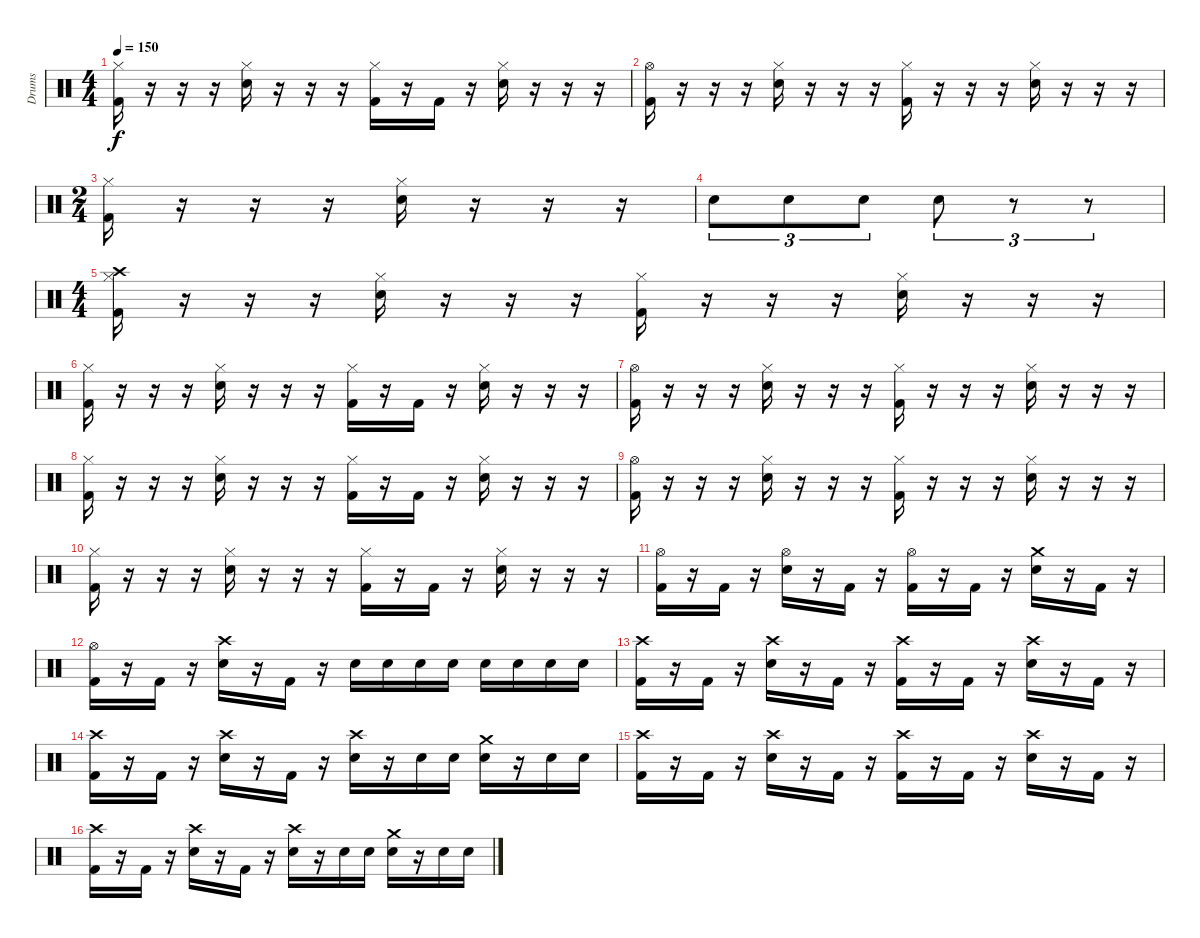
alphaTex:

\track ("Drums" "Drums") {instrument percussion}
\staff {score}
\articulation defaults
\ts (4 4)
\tempo 150
\clef neutral
\ks c
("Hi-Hat (closed)" "Kick (hit) 2").16{dy f} r.16 r.16 r.16 ("Hi-Hat (closed)" "Snare (hit) 2").16 r.16 r.16 r.16 ("Hi-Hat (closed)" "Kick (hit) 2").16 r.16 "Kick (hit) 2".16 r.16 ("Hi-Hat (closed)" "Snare (hit) 2").16 r.16 r.16 r.16 |
("Hi-Hat (open)" "Kick (hit) 2").16 r.16 r.16 r.16 ("Hi-Hat (closed)" "Snare (hit) 2").16 r.16 r.16 r.16 ("Hi-Hat (closed)" "Kick (hit) 2").16 r.16 r.16 r.16 ("Hi-Hat (closed)" "Snare (hit) 2").16 r.16 r.16 r.16 |
\ts (2 4)
("Hi-Hat (closed)" "Kick (hit) 2").16 r.16 r.16 r.16 ("Hi-Hat (closed)" "Snare (hit) 2").16 r.16 r.16 r.16 |
"Snare (hit) 2".8{tu (3 2)} "Snare (hit) 2".8{tu (3 2)} "Snare (hit) 2".8{tu (3 2)} "Snare (hit) 2".8{tu (3 2)} r.8{tu (3 2)} r.8{tu (3 2)} |
\ts (4 4)
("Crash high (hit)" "Hi-Hat (closed)" "Kick (hit) 2").16 r.16 r.16 r.16 ("Hi-Hat (closed)" "Snare (hit) 2").16 r.16 r.16 r.16 ("Hi-Hat (closed)" "Kick (hit) 2").16 r.16 r.16 r.16 ("Hi-Hat (closed)" "Snare (hit) 2").16 r.16 r.16 r.16 |
("Hi-Hat (closed)" "Kick (hit) 2").16 r.16 r.16 r.16 ("Hi-Hat (closed)" "Snare (hit) 2").16 r.16 r.16 r.16 ("Hi-Hat (closed)" "Kick (hit) 2").16 r.16 "Kick (hit) 2".16 r.16 ("Hi-Hat (closed)" "Snare (hit) 2").16 r.16 r.16 r.16 |
("Hi-Hat (open)" "Kick (hit) 2").16 r.16 r.16 r.16 ("Hi-Hat (closed)" "Snare (hit) 2").16 r.16 r.16 r.16 ("Hi-Hat (closed)" "Kick (hit) 2").16 r.16 r.16 r.16 ("Hi-Hat (closed)" "Snare (hit) 2").16 r.16 r.16 r.16 |
("Hi-Hat (closed)" "Kick (hit) 2").16 r.16 r.16 r.16 ("Hi-Hat (closed)" "Snare (hit) 2").16 r.16 r.16 r.16 ("Hi-Hat (closed)" "Kick (hit) 2").16 r.16 "Kick (hit) 2".16 r.16 ("Hi-Hat (closed)" "Snare (hit) 2").16 r.16 r.16 r.16 |
("Hi-Hat (open)" "Kick (hit) 2").16 r.16 r.16 r.16 ("Hi-Hat (closed)" "Snare (hit) 2").16 r.16 r.16 r.16 ("Hi-Hat (closed)" "Kick (hit) 2").16 r.16 r.16 r.16 ("Hi-Hat (closed)" "Snare (hit) 2").16 r.16 r.16 r.16 |
("Hi-Hat (closed)" "Kick (hit) 2").16 r.16 r.16 r.16 ("Hi-Hat (closed)" "Snare (hit) 2").16 r.16 r.16 r.16 ("Hi-Hat (closed)" "Kick (hit) 2").16 r.16 "Kick (hit) 2".16 r.16 ("Hi-Hat (closed)" "Snare (hit) 2").16 r.16 r.16 r.16 |
("Hi-Hat (open)" "Kick (hit) 2").16 r.16 "Kick (hit) 2".16 r.16 ("Hi-Hat (open)" "Snare (hit) 2").16 r.16 "Kick (hit) 2".16 r.16 ("Hi-Hat (open)" "Kick (hit) 2").16 r.16 "Kick (hit) 2".16 r.16 ("Crash medium (hit)" "Snare (hit) 2").16 r.16 "Kick (hit) 2".16 r.16 |
("Hi-Hat (open)" "Kick (hit) 2").16 r.16 "Kick (hit) 2".16 r.16 ("Crash high (hit)" "Snare (hit) 2").16 r.16 "Kick (hit) 2".16 r.16 "Snare (hit) 2".16 "Snare (hit) 2".16 "Snare (hit) 2".16 "Snare (hit) 2".16 "Snare (hit) 2".16 "Snare (hit) 2".16 "Snare (hit) 2".16 "Snare (hit) 2".16 |
("Crash high (hit)" "Kick (hit) 2").16 r.16 "Kick (hit) 2".16 r.16 ("Crash high (hit)" "Snare (hit) 2").16 r.16 "Kick (hit) 2".16 r.16 ("Crash high (hit)" "Kick (hit) 2").16 r.16 "Kick (hit) 2".16 r.16 ("Crash high (hit)" "Snare (hit) 2").16 r.16 "Kick (hit) 2".16 r.16 |
("Crash high (hit)" "Kick (hit) 2").16 r.16 "Kick (hit) 2".16 r.16 ("Crash high (hit)" "Snare (hit) 2").16 r.16 "Kick (hit) 2".16 r.16 ("Crash high (hit)" "Snare (hit) 2").16 r.16 "Snare (hit) 2".16 "Snare (hit) 2".16 ("Crash medium (hit)" "Snare (hit) 2").16 r.16 "Snare (hit) 2".16 "Snare (hit) 2".16 |
("Crash high (hit)" "Kick (hit) 2").16 r.16 "Kick (hit) 2".16 r.16 ("Crash high (hit)" "Snare (hit) 2").16 r.16 "Kick (hit) 2".16 r.16 ("Crash high (hit)" "Kick (hit) 2").16 r.16 "Kick (hit) 2".16 r.16 ("Crash high (hit)" "Snare (hit) 2").16 r.16 "Kick (hit) 2".16 r.16 |
("Crash high (hit)" "Kick (hit) 2").16 r.16 "Kick (hit) 2".16 r.16 ("Crash high (hit)" "Snare (hit) 2").16 r.16 "Kick (hit) 2".16 r.16 ("Crash high (hit)" "Snare (hit) 2").16 r.16 "Snare (hit) 2".16 "Snare (hit) 2".16 ("Crash medium (hit)" "Snare (hit) 2").16 r.16 "Snare (hit) 2".16 "Snare (hit) 2".16
